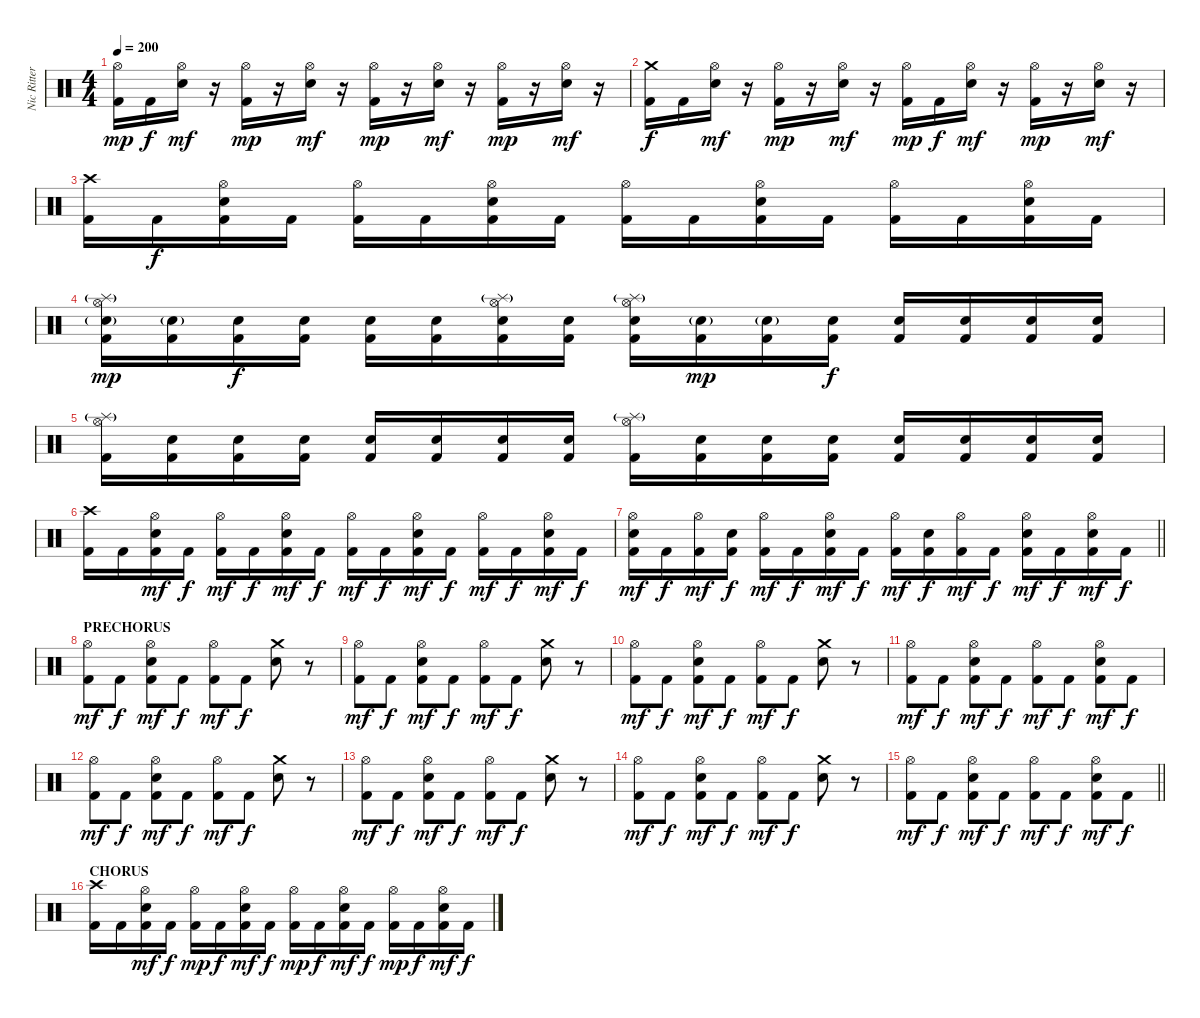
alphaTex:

\track ("Nic Ritter" "Nic Ritter") {instrument percussion}
\staff {score}
\articulation defaults
\ts (4 4)
\tempo 200
\clef neutral
\ks c
("Hi-Hat (open)" "Kick (hit) 2").16{dy mp} "Kick (hit) 2".16{dy f} ("Hi-Hat (open)" "Electric Snare (hit)").16{dy mf} r.16 ("Hi-Hat (open)" "Kick (hit) 2").16{dy mp} r.16 ("Hi-Hat (open)" "Electric Snare (hit)").16{dy mf} r.16 ("Hi-Hat (open)" "Kick (hit) 2").16{dy mp} r.16 ("Hi-Hat (open)" "Electric Snare (hit)").16{dy mf} r.16 ("Hi-Hat (open)" "Kick (hit) 2").16{dy mp} r.16 ("Hi-Hat (open)" "Electric Snare (hit)").16{dy mf} r.16 |
("Crash medium (hit)" "Kick (hit) 2").16{dy f} "Kick (hit) 2".16 ("Hi-Hat (open)" "Electric Snare (hit)").16{dy mf} r.16 ("Hi-Hat (open)" "Kick (hit) 2").16{dy mp} r.16 ("Hi-Hat (open)" "Electric Snare (hit)").16{dy mf} r.16 ("Hi-Hat (open)" "Kick (hit) 2").16{dy mp} "Kick (hit) 2".16{dy f} ("Hi-Hat (open)" "Electric Snare (hit)").16{dy mf} r.16 ("Hi-Hat (open)" "Kick (hit) 2").16{dy mp} r.16 ("Hi-Hat (open)" "Electric Snare (hit)").16{dy mf} r.16 |
("Crash high (hit)" "Kick (hit) 2").16 "Kick (hit) 2".16{dy f} ("Hi-Hat (open)" "Electric Snare (hit)" "Kick (hit) 2").16 "Kick (hit) 2".16 ("Hi-Hat (open)" "Kick (hit) 2").16 "Kick (hit) 2".16 ("Hi-Hat (open)" "Electric Snare (hit)" "Kick (hit) 2").16 "Kick (hit) 2".16 ("Hi-Hat (open)" "Kick (hit) 2").16 "Kick (hit) 2".16 ("Hi-Hat (open)" "Electric Snare (hit)" "Kick (hit) 2").16 "Kick (hit) 2".16 ("Hi-Hat (open)" "Kick (hit) 2").16 "Kick (hit) 2".16 ("Hi-Hat (open)" "Electric Snare (hit)" "Kick (hit) 2").16 "Kick (hit) 2".16 |
("Splash (hit)"{g} "Hi-Hat (open)" "Electric Snare (hit)"{g} "Kick (hit) 2").16{dy mp} ("Electric Snare (hit)"{g} "Kick (hit) 2").16 ("Electric Snare (hit)" "Kick (hit) 2").16{dy f} ("Electric Snare (hit)" "Kick (hit) 2").16 ("Electric Snare (hit)" "Kick (hit) 2").16 ("Electric Snare (hit)" "Kick (hit) 2").16 ("Splash (hit)"{g} "Hi-Hat (open)" "Electric Snare (hit)" "Kick (hit) 2").16 ("Electric Snare (hit)" "Kick (hit) 2").16 ("Splash (hit)"{g} "Hi-Hat (open)" "Electric Snare (hit)" "Kick (hit) 2").16 ("Electric Snare (hit)"{g} "Kick (hit) 2").16{dy mp} ("Electric Snare (hit)"{g} "Kick (hit) 2").16 ("Electric Snare (hit)" "Kick (hit) 2").16{dy f} ("Electric Snare (hit)" "Kick (hit) 2").16 ("Electric Snare (hit)" "Kick (hit) 2").16 ("Electric Snare (hit)" "Kick (hit) 2").16 ("Electric Snare (hit)" "Kick (hit) 2").16 |
("Splash (hit)"{g} "Hi-Hat (open)" "Kick (hit) 2").16 ("Electric Snare (hit)" "Kick (hit) 2").16 ("Electric Snare (hit)" "Kick (hit) 2").16 ("Electric Snare (hit)" "Kick (hit) 2").16 ("Electric Snare (hit)" "Kick (hit) 2").16 ("Electric Snare (hit)" "Kick (hit) 2").16 ("Electric Snare (hit)" "Kick (hit) 2").16 ("Electric Snare (hit)" "Kick (hit) 2").16 ("Splash (hit)"{g} "Hi-Hat (open)" "Kick (hit) 2").16 ("Electric Snare (hit)" "Kick (hit) 2").16 ("Electric Snare (hit)" "Kick (hit) 2").16 ("Electric Snare (hit)" "Kick (hit) 2").16 ("Electric Snare (hit)" "Kick (hit) 2").16 ("Electric Snare (hit)" "Kick (hit) 2").16 ("Electric Snare (hit)" "Kick (hit) 2").16 ("Electric Snare (hit)" "Kick (hit) 2").16 |
("Crash high (hit)" "Kick (hit) 2").16 "Kick (hit) 2".16 ("Hi-Hat (open)" "Electric Snare (hit)" "Kick (hit) 2").16{dy mf} "Kick (hit) 2".16{dy f} ("Hi-Hat (open)" "Kick (hit) 2").16{dy mf} "Kick (hit) 2".16{dy f} ("Hi-Hat (open)" "Electric Snare (hit)" "Kick (hit) 2").16{dy mf} "Kick (hit) 2".16{dy f} ("Hi-Hat (open)" "Kick (hit) 2").16{dy mf} "Kick (hit) 2".16{dy f} ("Hi-Hat (open)" "Electric Snare (hit)" "Kick (hit) 2").16{dy mf} "Kick (hit) 2".16{dy f} ("Hi-Hat (open)" "Kick (hit) 2").16{dy mf} "Kick (hit) 2".16{dy f} ("Hi-Hat (open)" "Electric Snare (hit)" "Kick (hit) 2").16{dy mf} "Kick (hit) 2".16{dy f} |
\barLineRight lightlight
("Hi-Hat (open)" "Electric Snare (hit)" "Kick (hit) 2").16{dy mf} "Kick (hit) 2".16{dy f} ("Hi-Hat (open)" "Kick (hit) 2").16{dy mf} ("Electric Snare (hit)" "Kick (hit) 2").16{dy f} ("Hi-Hat (open)" "Kick (hit) 2").16{dy mf} "Kick (hit) 2".16{dy f} ("Hi-Hat (open)" "Electric Snare (hit)" "Kick (hit) 2").16{dy mf} "Kick (hit) 2".16{dy f} ("Hi-Hat (open)" "Kick (hit) 2").16{dy mf} ("Electric Snare (hit)" "Kick (hit) 2").16{dy f} ("Hi-Hat (open)" "Kick (hit) 2").16{dy mf} "Kick (hit) 2".16{dy f} ("Hi-Hat (open)" "Electric Snare (hit)" "Kick (hit) 2").16{dy mf} "Kick (hit) 2".16{dy f} ("Hi-Hat (open)" "Electric Snare (hit)" "Kick (hit) 2").16{dy mf} "Kick (hit) 2".16{dy f} |
\section ("" "PRECHORUS")
("Hi-Hat (open)" "Kick (hit) 2").8{dy mf} "Kick (hit) 2".8{dy f} ("Hi-Hat (open)" "Electric Snare (hit)" "Kick (hit) 2").8{dy mf} "Kick (hit) 2".8{dy f} ("Hi-Hat (open)" "Kick (hit) 2").8{dy mf} "Kick (hit) 2".8{dy f} ("Crash medium (hit)" "Electric Snare (hit)").8 r.8 |
("Hi-Hat (open)" "Kick (hit) 2").8{dy mf} "Kick (hit) 2".8{dy f} ("Hi-Hat (open)" "Electric Snare (hit)" "Kick (hit) 2").8{dy mf} "Kick (hit) 2".8{dy f} ("Hi-Hat (open)" "Kick (hit) 2").8{dy mf} "Kick (hit) 2".8{dy f} ("Crash medium (hit)" "Electric Snare (hit)").8 r.8 |
("Hi-Hat (open)" "Kick (hit) 2").8{dy mf} "Kick (hit) 2".8{dy f} ("Hi-Hat (open)" "Electric Snare (hit)" "Kick (hit) 2").8{dy mf} "Kick (hit) 2".8{dy f} ("Hi-Hat (open)" "Kick (hit) 2").8{dy mf} "Kick (hit) 2".8{dy f} ("Crash medium (hit)" "Electric Snare (hit)").8 r.8 |
("Hi-Hat (open)" "Kick (hit) 2").8{dy mf} "Kick (hit) 2".8{dy f} ("Hi-Hat (open)" "Electric Snare (hit)" "Kick (hit) 2").8{dy mf} "Kick (hit) 2".8{dy f} ("Hi-Hat (open)" "Kick (hit) 2").8{dy mf} "Kick (hit) 2".8{dy f} ("Hi-Hat (open)" "Electric Snare (hit)" "Kick (hit) 2").8{dy mf} "Kick (hit) 2".8{dy f} |
("Hi-Hat (open)" "Kick (hit) 2").8{dy mf} "Kick (hit) 2".8{dy f} ("Hi-Hat (open)" "Electric Snare (hit)" "Kick (hit) 2").8{dy mf} "Kick (hit) 2".8{dy f} ("Hi-Hat (open)" "Kick (hit) 2").8{dy mf} "Kick (hit) 2".8{dy f} ("Crash medium (hit)" "Electric Snare (hit)").8 r.8 |
("Hi-Hat (open)" "Kick (hit) 2").8{dy mf} "Kick (hit) 2".8{dy f} ("Hi-Hat (open)" "Electric Snare (hit)" "Kick (hit) 2").8{dy mf} "Kick (hit) 2".8{dy f} ("Hi-Hat (open)" "Kick (hit) 2").8{dy mf} "Kick (hit) 2".8{dy f} ("Crash medium (hit)" "Electric Snare (hit)").8 r.8 |
("Hi-Hat (open)" "Kick (hit) 2").8{dy mf} "Kick (hit) 2".8{dy f} ("Hi-Hat (open)" "Electric Snare (hit)" "Kick (hit) 2").8{dy mf} "Kick (hit) 2".8{dy f} ("Hi-Hat (open)" "Kick (hit) 2").8{dy mf} "Kick (hit) 2".8{dy f} ("Crash medium (hit)" "Electric Snare (hit)").8 r.8 |
\barLineRight lightlight
("Hi-Hat (open)" "Kick (hit) 2").8{dy mf} "Kick (hit) 2".8{dy f} ("Hi-Hat (open)" "Electric Snare (hit)" "Kick (hit) 2").8{dy mf} "Kick (hit) 2".8{dy f} ("Hi-Hat (open)" "Kick (hit) 2").8{dy mf} "Kick (hit) 2".8{dy f} ("Hi-Hat (open)" "Electric Snare (hit)" "Kick (hit) 2").8{dy mf} "Kick (hit) 2".8{dy f} |
\section ("" "CHORUS")
("Crash high (hit)" "Kick (hit) 2").16 "Kick (hit) 2".16 ("Hi-Hat (open)" "Electric Snare (hit)" "Kick (hit) 2").16{dy mf} "Kick (hit) 2".16{dy f} ("Hi-Hat (open)" "Kick (hit) 2").16{dy mp} "Kick (hit) 2".16{dy f} ("Hi-Hat (open)" "Electric Snare (hit)" "Kick (hit) 2").16{dy mf} "Kick (hit) 2".16{dy f} ("Hi-Hat (open)" "Kick (hit) 2").16{dy mp} "Kick (hit) 2".16{dy f} ("Hi-Hat (open)" "Electric Snare (hit)" "Kick (hit) 2").16{dy mf} "Kick (hit) 2".16{dy f} ("Hi-Hat (open)" "Kick (hit) 2").16{dy mp} "Kick (hit) 2".16{dy f} ("Hi-Hat (open)" "Electric Snare (hit)" "Kick (hit) 2").16{dy mf} "Kick (hit) 2".16{dy f}
